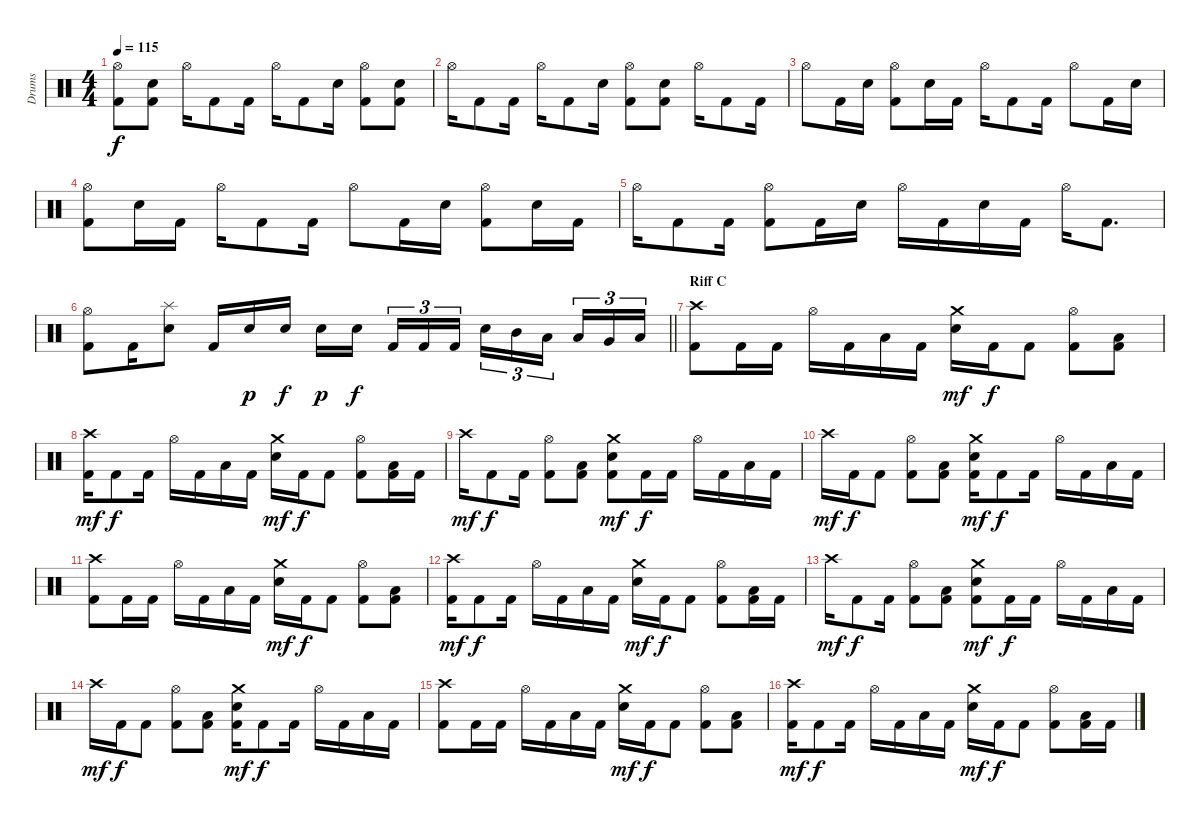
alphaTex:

\track ("Drums" "Drums") {instrument percussion}
\staff {score}
\articulation defaults
\ts (4 4)
\tempo 115
\clef neutral
\ks c
("Hi-Hat (open)" "Kick (hit) 2").8{dy f} ("Snare (hit) 2" "Kick (hit) 2").8 "Hi-Hat (open)".16 "Kick (hit) 2".8 "Kick (hit) 2".16 "Hi-Hat (open)".16 "Kick (hit) 2".8 "Snare (hit) 2".16 ("Hi-Hat (open)" "Kick (hit) 2").8 ("Snare (hit) 2" "Kick (hit) 2").8 |
"Hi-Hat (open)".16 "Kick (hit) 2".8 "Kick (hit) 2".16 "Hi-Hat (open)".16 "Kick (hit) 2".8 "Snare (hit) 2".16 ("Hi-Hat (open)" "Kick (hit) 2").8 ("Snare (hit) 2" "Kick (hit) 2").8 "Hi-Hat (open)".16 "Kick (hit) 2".8 "Kick (hit) 2".16 |
"Hi-Hat (open)".8 "Kick (hit) 2".16 "Snare (hit) 2".16 ("Hi-Hat (open)" "Kick (hit) 2").8 "Snare (hit) 2".16 "Kick (hit) 2".16 "Hi-Hat (open)".16 "Kick (hit) 2".8 "Kick (hit) 2".16 "Hi-Hat (open)".8 "Kick (hit) 2".16 "Snare (hit) 2".16 |
("Hi-Hat (open)" "Kick (hit) 2").8 "Snare (hit) 2".16 "Kick (hit) 2".16 "Hi-Hat (open)".16 "Kick (hit) 2".8 "Kick (hit) 2".16 "Hi-Hat (open)".8 "Kick (hit) 2".16 "Snare (hit) 2".16 ("Hi-Hat (open)" "Kick (hit) 2").8 "Snare (hit) 2".16 "Kick (hit) 2".16 |
"Hi-Hat (open)".16 "Kick (hit) 2".8 "Kick (hit) 2".16 ("Hi-Hat (open)" "Kick (hit) 2").8 "Kick (hit) 2".16 "Snare (hit) 2".16 "Hi-Hat (open)".16 "Kick (hit) 2".16 "Snare (hit) 2".16 "Kick (hit) 2".16 "Hi-Hat (open)".16 "Kick (hit) 2".8{d} |
\barLineRight lightlight
("Hi-Hat (open)" "Kick (hit) 2").8 "Kick (hit) 2".16 ("Splash (hit)" "Snare (hit) 2").8 "Kick (hit) 2".16 "Snare (hit) 2".16{dy p} "Snare (hit) 2".16{dy f} "Snare (hit) 2".16{dy p} "Snare (hit) 2".16{dy f beam splitsecondary} "Kick (hit) 2".16{tu (3 2)} "Kick (hit) 2".16{tu (3 2)} "Kick (hit) 2".16{tu (3 2)} "Snare (hit) 2".16{tu (3 2)} "Mid Tom (hit)".16{tu (3 2)} "Low Tom (hit)".16{tu (3 2) beam splitsecondary} "Low Tom (hit)".16{tu (3 2)} "Very Low Tom (hit)".16{tu (3 2)} "Low Floor Tom (hit)".16{tu (3 2)} |
\section ("" "Riff C")
("Crash high (hit)" "Kick (hit) 2").8 "Kick (hit) 2".16 "Kick (hit) 2".16 "Hi-Hat (open)".16 "Kick (hit) 2".16 "Low Tom (hit)".16 "Kick (hit) 2".16 ("Crash medium (hit)" "Snare (hit) 2").16{dy mf} "Kick (hit) 2".16{dy f} "Kick (hit) 2".8 ("Hi-Hat (open)" "Kick (hit) 2").8 ("Low Tom (hit)" "Kick (hit) 2").8 |
("Crash high (hit)" "Kick (hit) 2").16{dy mf} "Kick (hit) 2".8{dy f} "Kick (hit) 2".16 "Hi-Hat (open)".16 "Kick (hit) 2".16 "Low Tom (hit)".16 "Kick (hit) 2".16 ("Crash medium (hit)" "Snare (hit) 2").16{dy mf} "Kick (hit) 2".16{dy f} "Kick (hit) 2".8 ("Hi-Hat (open)" "Kick (hit) 2").8 ("Low Tom (hit)" "Kick (hit) 2").16 "Kick (hit) 2".16 |
"Crash high (hit)".16{dy mf} "Kick (hit) 2".8{dy f} "Kick (hit) 2".16 ("Hi-Hat (open)" "Kick (hit) 2").8 ("Low Tom (hit)" "Kick (hit) 2").8 ("Crash medium (hit)" "Snare (hit) 2" "Kick (hit) 2").8{dy mf} "Kick (hit) 2".16{dy f} "Kick (hit) 2".16 "Hi-Hat (open)".16 "Kick (hit) 2".16 "Low Tom (hit)".16 "Kick (hit) 2".16 |
"Crash high (hit)".16{dy mf} "Kick (hit) 2".16{dy f} "Kick (hit) 2".8 ("Hi-Hat (open)" "Kick (hit) 2").8 ("Low Tom (hit)" "Kick (hit) 2").8 ("Crash medium (hit)" "Snare (hit) 2" "Kick (hit) 2").16{dy mf} "Kick (hit) 2".8{dy f} "Kick (hit) 2".16 "Hi-Hat (open)".16 "Kick (hit) 2".16 "Low Tom (hit)".16 "Kick (hit) 2".16 |
("Crash high (hit)" "Kick (hit) 2").8 "Kick (hit) 2".16 "Kick (hit) 2".16 "Hi-Hat (open)".16 "Kick (hit) 2".16 "Low Tom (hit)".16 "Kick (hit) 2".16 ("Crash medium (hit)" "Snare (hit) 2").16{dy mf} "Kick (hit) 2".16{dy f} "Kick (hit) 2".8 ("Hi-Hat (open)" "Kick (hit) 2").8 ("Low Tom (hit)" "Kick (hit) 2").8 |
("Crash high (hit)" "Kick (hit) 2").16{dy mf} "Kick (hit) 2".8{dy f} "Kick (hit) 2".16 "Hi-Hat (open)".16 "Kick (hit) 2".16 "Low Tom (hit)".16 "Kick (hit) 2".16 ("Crash medium (hit)" "Snare (hit) 2").16{dy mf} "Kick (hit) 2".16{dy f} "Kick (hit) 2".8 ("Hi-Hat (open)" "Kick (hit) 2").8 ("Low Tom (hit)" "Kick (hit) 2").16 "Kick (hit) 2".16 |
"Crash high (hit)".16{dy mf} "Kick (hit) 2".8{dy f} "Kick (hit) 2".16 ("Hi-Hat (open)" "Kick (hit) 2").8 ("Low Tom (hit)" "Kick (hit) 2").8 ("Crash medium (hit)" "Snare (hit) 2" "Kick (hit) 2").8{dy mf} "Kick (hit) 2".16{dy f} "Kick (hit) 2".16 "Hi-Hat (open)".16 "Kick (hit) 2".16 "Low Tom (hit)".16 "Kick (hit) 2".16 |
"Crash high (hit)".16{dy mf} "Kick (hit) 2".16{dy f} "Kick (hit) 2".8 ("Hi-Hat (open)" "Kick (hit) 2").8 ("Low Tom (hit)" "Kick (hit) 2").8 ("Crash medium (hit)" "Snare (hit) 2" "Kick (hit) 2").16{dy mf} "Kick (hit) 2".8{dy f} "Kick (hit) 2".16 "Hi-Hat (open)".16 "Kick (hit) 2".16 "Low Tom (hit)".16 "Kick (hit) 2".16 |
("Crash high (hit)" "Kick (hit) 2").8 "Kick (hit) 2".16 "Kick (hit) 2".16 "Hi-Hat (open)".16 "Kick (hit) 2".16 "Low Tom (hit)".16 "Kick (hit) 2".16 ("Crash medium (hit)" "Snare (hit) 2").16{dy mf} "Kick (hit) 2".16{dy f} "Kick (hit) 2".8 ("Hi-Hat (open)" "Kick (hit) 2").8 ("Low Tom (hit)" "Kick (hit) 2").8 |
("Crash high (hit)" "Kick (hit) 2").16{dy mf} "Kick (hit) 2".8{dy f} "Kick (hit) 2".16 "Hi-Hat (open)".16 "Kick (hit) 2".16 "Low Tom (hit)".16 "Kick (hit) 2".16 ("Crash medium (hit)" "Snare (hit) 2").16{dy mf} "Kick (hit) 2".16{dy f} "Kick (hit) 2".8 ("Hi-Hat (open)" "Kick (hit) 2").8 ("Low Tom (hit)" "Kick (hit) 2").16 "Kick (hit) 2".16
